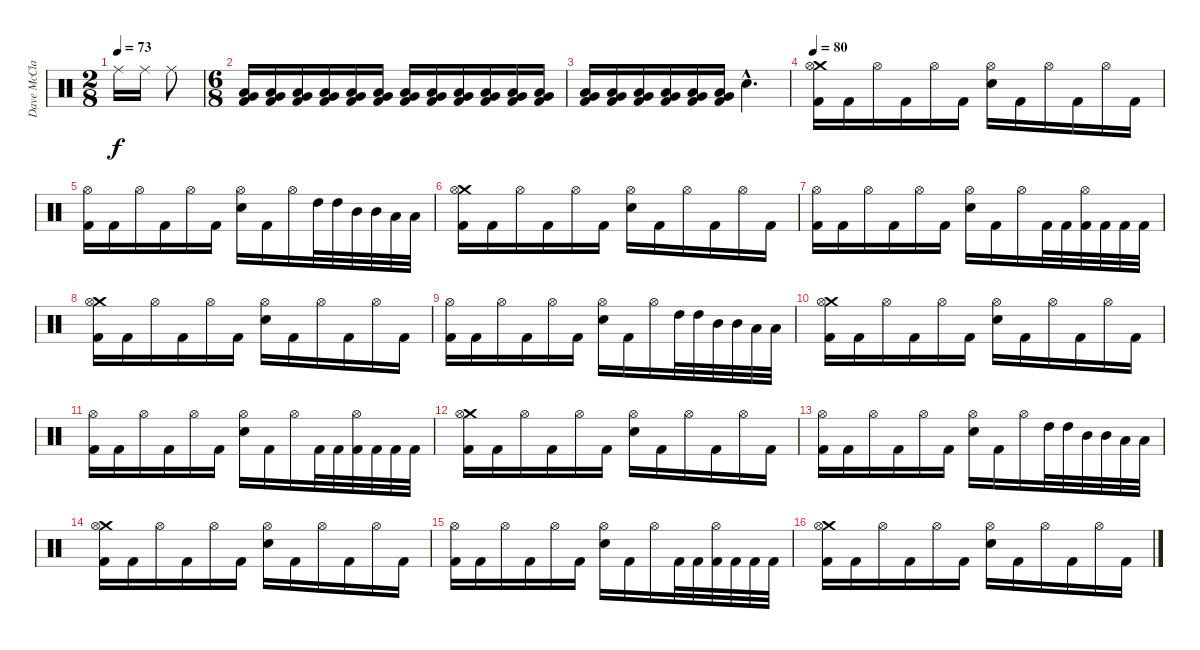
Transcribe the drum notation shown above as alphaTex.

\track ("Dave McClain" "Dave McCla") {instrument percussion}
\staff {score}
\articulation defaults
\ts (2 8)
\tempo 73
\clef neutral
\ks c "Ride (middle)".16{dy f} "Ride (middle)".16 "Ride (middle)".8
|
\ts (6 8)
("Very Low Tom (hit)" "Low Floor Tom (hit)" "Kick (hit) 2").16 ("Very Low Tom (hit)" "Low Floor Tom (hit)" "Kick (hit) 2").16 ("Very Low Tom (hit)" "Low Floor Tom (hit)" "Kick (hit) 2").16 ("Very Low Tom (hit)" "Low Floor Tom (hit)" "Kick (hit) 2").16 ("Very Low Tom (hit)" "Low Floor Tom (hit)" "Kick (hit) 2").16 ("Very Low Tom (hit)" "Low Floor Tom (hit)" "Kick (hit) 2").16 ("Very Low Tom (hit)" "Low Floor Tom (hit)" "Kick (hit) 2").16 ("Very Low Tom (hit)" "Low Floor Tom (hit)" "Kick (hit) 2").16 ("Very Low Tom (hit)" "Low Floor Tom (hit)" "Kick (hit) 2").16 ("Very Low Tom (hit)" "Low Floor Tom (hit)" "Kick (hit) 2").16 ("Very Low Tom (hit)" "Low Floor Tom (hit)" "Kick (hit) 2").16 ("Very Low Tom (hit)" "Low Floor Tom (hit)" "Kick (hit) 2").16 |
("Very Low Tom (hit)" "Low Floor Tom (hit)" "Kick (hit) 2").16 ("Very Low Tom (hit)" "Low Floor Tom (hit)" "Kick (hit) 2").16 ("Very Low Tom (hit)" "Low Floor Tom (hit)" "Kick (hit) 2").16 ("Very Low Tom (hit)" "Low Floor Tom (hit)" "Kick (hit) 2").16 ("Very Low Tom (hit)" "Low Floor Tom (hit)" "Kick (hit) 2").16 ("Very Low Tom (hit)" "Low Floor Tom (hit)" "Kick (hit) 2").16 "Snare (hit) 2"{hac}.4{d} |
\tempo 80
("Crash medium (hit)" "Hi-Hat (open)" "Kick (hit) 2").16 "Kick (hit) 2".16 "Hi-Hat (open)".16 "Kick (hit) 2".16 "Hi-Hat (open)".16 "Kick (hit) 2".16 ("Hi-Hat (open)" "Snare (hit) 2").16 "Kick (hit) 2".16 "Hi-Hat (open)".16 "Kick (hit) 2".16 "Hi-Hat (open)".16 "Kick (hit) 2".16 |
("Hi-Hat (open)" "Kick (hit) 2").16 "Kick (hit) 2".16 "Hi-Hat (open)".16 "Kick (hit) 2".16 "Hi-Hat (open)".16 "Kick (hit) 2".16 ("Hi-Hat (open)" "Snare (hit) 2").16 "Kick (hit) 2".16 "Hi-Hat (open)".16 "High Tom (hit)".32 "High Tom (hit)".32 "Mid Tom (hit)".32 "Mid Tom (hit)".32 "Low Tom (hit)".32 "Low Tom (hit)".32 |
("Crash medium (hit)" "Hi-Hat (open)" "Kick (hit) 2").16 "Kick (hit) 2".16 "Hi-Hat (open)".16 "Kick (hit) 2".16 "Hi-Hat (open)".16 "Kick (hit) 2".16 ("Hi-Hat (open)" "Snare (hit) 2").16 "Kick (hit) 2".16 "Hi-Hat (open)".16 "Kick (hit) 2".16 "Hi-Hat (open)".16 "Kick (hit) 2".16 |
("Hi-Hat (open)" "Kick (hit) 2").16 "Kick (hit) 2".16 "Hi-Hat (open)".16 "Kick (hit) 2".16 "Hi-Hat (open)".16 "Kick (hit) 2".16 ("Hi-Hat (open)" "Snare (hit) 2").16 "Kick (hit) 2".16 "Hi-Hat (open)".16 "Kick (hit) 2".32 "Kick (hit) 2".32 ("Hi-Hat (open)" "Kick (hit) 2").32 "Kick (hit) 2".32 "Kick (hit) 2".32 "Kick (hit) 2".32 |
("Crash medium (hit)" "Hi-Hat (open)" "Kick (hit) 2").16 "Kick (hit) 2".16 "Hi-Hat (open)".16 "Kick (hit) 2".16 "Hi-Hat (open)".16 "Kick (hit) 2".16 ("Hi-Hat (open)" "Snare (hit) 2").16 "Kick (hit) 2".16 "Hi-Hat (open)".16 "Kick (hit) 2".16 "Hi-Hat (open)".16 "Kick (hit) 2".16 |
("Hi-Hat (open)" "Kick (hit) 2").16 "Kick (hit) 2".16 "Hi-Hat (open)".16 "Kick (hit) 2".16 "Hi-Hat (open)".16 "Kick (hit) 2".16 ("Hi-Hat (open)" "Snare (hit) 2").16 "Kick (hit) 2".16 "Hi-Hat (open)".16 "High Tom (hit)".32 "High Tom (hit)".32 "Mid Tom (hit)".32 "Mid Tom (hit)".32 "Low Tom (hit)".32 "Low Tom (hit)".32 |
("Crash medium (hit)" "Hi-Hat (open)" "Kick (hit) 2").16 "Kick (hit) 2".16 "Hi-Hat (open)".16 "Kick (hit) 2".16 "Hi-Hat (open)".16 "Kick (hit) 2".16 ("Hi-Hat (open)" "Snare (hit) 2").16 "Kick (hit) 2".16 "Hi-Hat (open)".16 "Kick (hit) 2".16 "Hi-Hat (open)".16 "Kick (hit) 2".16 |
("Hi-Hat (open)" "Kick (hit) 2").16 "Kick (hit) 2".16 "Hi-Hat (open)".16 "Kick (hit) 2".16 "Hi-Hat (open)".16 "Kick (hit) 2".16 ("Hi-Hat (open)" "Snare (hit) 2").16 "Kick (hit) 2".16 "Hi-Hat (open)".16 "Kick (hit) 2".32 "Kick (hit) 2".32 ("Hi-Hat (open)" "Kick (hit) 2").32 "Kick (hit) 2".32 "Kick (hit) 2".32 "Kick (hit) 2".32 |
("Crash medium (hit)" "Hi-Hat (open)" "Kick (hit) 2").16 "Kick (hit) 2".16 "Hi-Hat (open)".16 "Kick (hit) 2".16 "Hi-Hat (open)".16 "Kick (hit) 2".16 ("Hi-Hat (open)" "Snare (hit) 2").16 "Kick (hit) 2".16 "Hi-Hat (open)".16 "Kick (hit) 2".16 "Hi-Hat (open)".16 "Kick (hit) 2".16 |
("Hi-Hat (open)" "Kick (hit) 2").16 "Kick (hit) 2".16 "Hi-Hat (open)".16 "Kick (hit) 2".16 "Hi-Hat (open)".16 "Kick (hit) 2".16 ("Hi-Hat (open)" "Snare (hit) 2").16 "Kick (hit) 2".16 "Hi-Hat (open)".16 "High Tom (hit)".32 "High Tom (hit)".32 "Mid Tom (hit)".32 "Mid Tom (hit)".32 "Low Tom (hit)".32 "Low Tom (hit)".32 |
("Crash medium (hit)" "Hi-Hat (open)" "Kick (hit) 2").16 "Kick (hit) 2".16 "Hi-Hat (open)".16 "Kick (hit) 2".16 "Hi-Hat (open)".16 "Kick (hit) 2".16 ("Hi-Hat (open)" "Snare (hit) 2").16 "Kick (hit) 2".16 "Hi-Hat (open)".16 "Kick (hit) 2".16 "Hi-Hat (open)".16 "Kick (hit) 2".16 |
("Hi-Hat (open)" "Kick (hit) 2").16 "Kick (hit) 2".16 "Hi-Hat (open)".16 "Kick (hit) 2".16 "Hi-Hat (open)".16 "Kick (hit) 2".16 ("Hi-Hat (open)" "Snare (hit) 2").16 "Kick (hit) 2".16 "Hi-Hat (open)".16 "Kick (hit) 2".32 "Kick (hit) 2".32 ("Hi-Hat (open)" "Kick (hit) 2").32 "Kick (hit) 2".32 "Kick (hit) 2".32 "Kick (hit) 2".32 |
("Crash medium (hit)" "Hi-Hat (open)" "Kick (hit) 2").16 "Kick (hit) 2".16 "Hi-Hat (open)".16 "Kick (hit) 2".16 "Hi-Hat (open)".16 "Kick (hit) 2".16 ("Hi-Hat (open)" "Snare (hit) 2").16 "Kick (hit) 2".16 "Hi-Hat (open)".16 "Kick (hit) 2".16 "Hi-Hat (open)".16 "Kick (hit) 2".16
